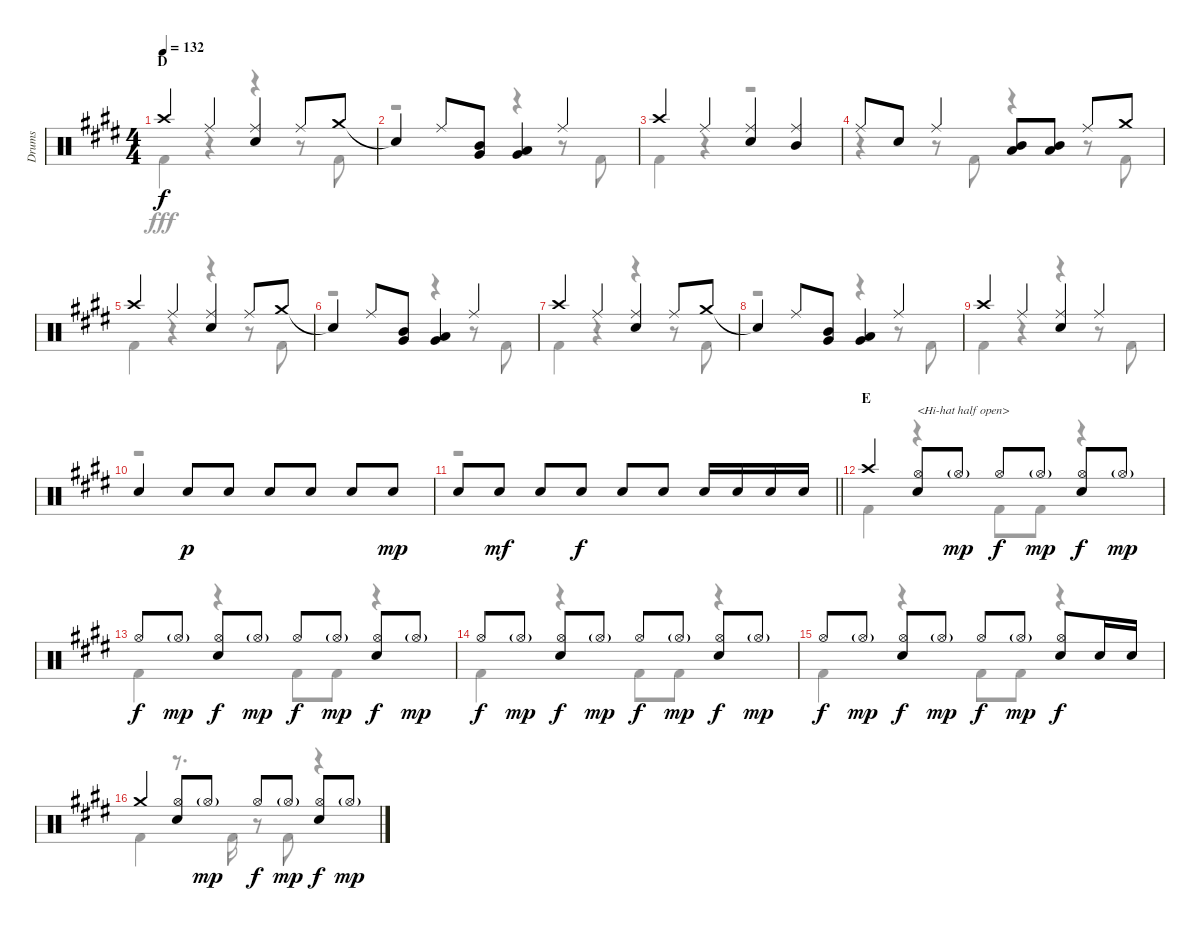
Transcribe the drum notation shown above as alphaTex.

\track ("Drums" "Drums") {instrument percussion}
\staff {score}
\articulation defaults
\voice
\ts (4 4)
\section ("" "D")
\tempo 132
\clef neutral
\ks e "Crash high (hit)".4{dy f} "Ride (middle)".4
("Ride (middle)" "Snare (hit) 2").4 "Ride (middle)".8 "Crash medium (hit)".8 |
"Snare (hit)"{t}.4 "Ride (middle)".8 ("Mid Tom (hit)" "Very Low Tom (hit)").8 ("Low Tom (hit)" "Very Low Tom (hit)").4 "Ride (middle)".4 |
"Crash high (hit)".4 "Ride (middle)".4 ("Ride (middle)" "Snare (hit) 2").4 ("Ride (middle)" "Mid Tom (hit)").4 |
"Ride (middle)".8 "Snare (hit) 2".8 "Ride (middle)".4 ("Mid Tom (hit)" "Low Tom (hit)").8 ("Mid Tom (hit)" "Low Tom (hit)").8 "Ride (middle)".8 "Crash medium (hit)".8 |
"Crash high (hit)".4 "Ride (middle)".4 ("Ride (middle)" "Snare (hit) 2").4 "Ride (middle)".8 "Crash medium (hit)".8 |
"Snare (hit)"{t}.4 "Ride (middle)".8 ("Mid Tom (hit)" "Very Low Tom (hit)").8 ("Low Tom (hit)" "Very Low Tom (hit)").4 "Ride (middle)".4 |
"Crash high (hit)".4 "Ride (middle)".4 ("Ride (middle)" "Snare (hit) 2").4 "Ride (middle)".8 "Crash medium (hit)".8 |
"Snare (hit)"{t}.4 "Ride (middle)".8 ("Mid Tom (hit)" "Very Low Tom (hit)").8 ("Low Tom (hit)" "Very Low Tom (hit)").4 "Ride (middle)".4 |
"Crash high (hit)".4 "Ride (middle)".4 ("Ride (middle)" "Snare (hit) 2").4 "Ride (middle)".4 |
"Snare (hit) 2".4 "Snare (hit) 2".8{dy p} "Snare (hit) 2".8 "Snare (hit) 2".8 "Snare (hit) 2".8 "Snare (hit) 2".8 "Snare (hit) 2".8{dy mp} |
\barLineRight lightlight "Snare (hit) 2".8 "Snare (hit) 2".8{dy mf} "Snare (hit) 2".8 "Snare (hit) 2".8{dy f} "Snare (hit) 2".8 "Snare (hit) 2".8 "Snare (hit) 2".16 "Snare (hit) 2".16 "Snare (hit) 2".16 "Snare (hit) 2".16
|
\section ("" "E")
"Crash high (hit)".4 ("Hi-Hat (open)" "Snare (hit) 2").8{txt "<Hi-hat half open>"} "Hi-Hat (open)"{g}.8{dy mp} "Hi-Hat (open)".8{dy f} "Hi-Hat (open)"{g}.8{dy mp} ("Hi-Hat (open)" "Snare (hit) 2").8{dy f} "Hi-Hat (open)"{g}.8{dy mp} |
"Hi-Hat (open)".8{dy f} "Hi-Hat (open)"{g}.8{dy mp} ("Hi-Hat (open)" "Snare (hit) 2").8{dy f} "Hi-Hat (open)"{g}.8{dy mp} "Hi-Hat (open)".8{dy f} "Hi-Hat (open)"{g}.8{dy mp} ("Hi-Hat (open)" "Snare (hit) 2").8{dy f} "Hi-Hat (open)"{g}.8{dy mp} |
"Hi-Hat (open)".8{dy f} "Hi-Hat (open)"{g}.8{dy mp} ("Hi-Hat (open)" "Snare (hit) 2").8{dy f} "Hi-Hat (open)"{g}.8{dy mp} "Hi-Hat (open)".8{dy f} "Hi-Hat (open)"{g}.8{dy mp} ("Hi-Hat (open)" "Snare (hit) 2").8{dy f} "Hi-Hat (open)"{g}.8{dy mp} |
"Hi-Hat (open)".8{dy f} "Hi-Hat (open)"{g}.8{dy mp} ("Hi-Hat (open)" "Snare (hit) 2").8{dy f} "Hi-Hat (open)"{g}.8{dy mp} "Hi-Hat (open)".8{dy f} "Hi-Hat (open)"{g}.8{dy mp} ("Hi-Hat (open)" "Snare (hit) 2").8{dy f} "Snare (hit) 2".16 "Snare (hit) 2".16 |
"Crash medium (hit)".4 ("Hi-Hat (open)" "Snare (hit) 2").8 "Hi-Hat (open)"{g}.8{dy mp} "Hi-Hat (open)".8{dy f} "Hi-Hat (open)"{g}.8{dy mp} ("Hi-Hat (open)" "Snare (hit) 2").8{dy f} "Hi-Hat (open)"{g}.8{dy mp}
\voice
\clef neutral
\ottava regular
\simile none
\ks e "Kick (hit) 2".4{dy fff}
r.4 r.4 r.8 "Kick (hit) 2".8 |
r.2 r.4 r.8 "Kick (hit) 2".8 |
"Kick (hit) 2".4 r.4 r.2 |
r.4 r.8 "Kick (hit) 2".8 r.4 r.8 "Kick (hit) 2".8 |
"Kick (hit) 2".4 r.4 r.4 r.8 "Kick (hit) 2".8 |
r.2 r.4 r.8 "Kick (hit) 2".8 |
"Kick (hit) 2".4 r.4 r.4 r.8 "Kick (hit) 2".8 |
r.2 r.4 r.8 "Kick (hit) 2".8 |
"Kick (hit) 2".4 r.4 r.4 r.8 "Kick (hit) 2".8 |
r.1 |
\barLineRight lightlight
r.1 |
"Kick (hit) 2".4 r.4 "Kick (hit) 2".8 "Kick (hit) 2".8 r.4 |
"Kick (hit) 2".4 r.4 "Kick (hit) 2".8 "Kick (hit) 2".8 r.4 |
"Kick (hit) 2".4 r.4 "Kick (hit) 2".8 "Kick (hit) 2".8 r.4 |
"Kick (hit) 2".4 r.4 "Kick (hit) 2".8 "Kick (hit) 2".8 r.4 |
"Kick (hit) 2".4 r.8{d} "Kick (hit) 2".16 r.8 "Kick (hit) 2".8 r.4
